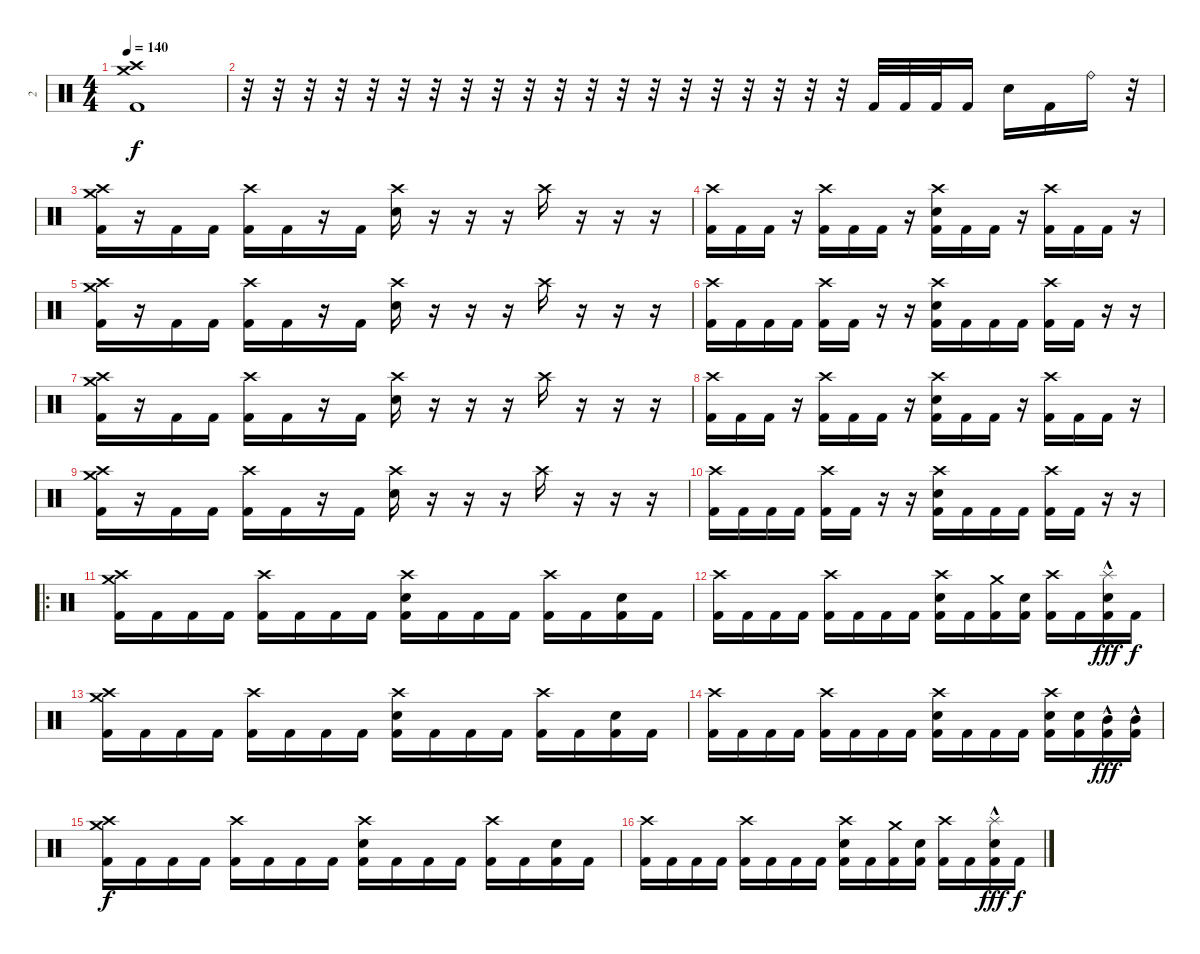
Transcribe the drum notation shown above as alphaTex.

\track ("2" "2") {instrument percussion}
\staff {score}
\articulation defaults
\ts (4 4)
\tempo 140
\clef neutral
\ks c
("Crash high (hit)" "Kick (hit) 2" "Crash medium (hit)").1{dy f} |
r.32 r.32 r.32 r.32 r.32 r.32 r.32 r.32 r.32 r.32 r.32 r.32 r.32 r.32 r.32 r.32 r.32 r.32 r.32 r.32 "Kick (hit) 2".32 "Kick (hit) 2".32 "Kick (hit) 2".32 "Kick (hit) 2".16 "Snare (hit) 2".16 "Kick (hit) 2".16 "Ride (bell)".16 r.32 |
("Crash medium (hit)" "Crash high (hit)" "Kick (hit) 2").16 r.16 "Kick (hit) 2".16 "Kick (hit) 2".16 ("Crash high (hit)" "Kick (hit) 2").16 "Kick (hit) 2".16 r.16 "Kick (hit) 2".16 ("Crash high (hit)" "Snare (hit) 2").16 r.16 r.16 r.16 "Crash high (hit)".16 r.16 r.16 r.16 |
("Crash high (hit)" "Kick (hit) 2").16 "Kick (hit) 2".16 "Kick (hit) 2".16 r.16 ("Crash high (hit)" "Kick (hit) 2").16 "Kick (hit) 2".16 "Kick (hit) 2".16 r.16 ("Crash high (hit)" "Snare (hit) 2" "Kick (hit) 2").16 "Kick (hit) 2".16 "Kick (hit) 2".16 r.16 ("Crash high (hit)" "Kick (hit) 2").16 "Kick (hit) 2".16 "Kick (hit) 2".16 r.16 |
("Crash medium (hit)" "Crash high (hit)" "Kick (hit) 2").16 r.16 "Kick (hit) 2".16 "Kick (hit) 2".16 ("Crash high (hit)" "Kick (hit) 2").16 "Kick (hit) 2".16 r.16 "Kick (hit) 2".16 ("Crash high (hit)" "Snare (hit) 2").16 r.16 r.16 r.16 "Crash high (hit)".16 r.16 r.16 r.16 |
("Crash high (hit)" "Kick (hit) 2").16 "Kick (hit) 2".16 "Kick (hit) 2".16 "Kick (hit) 2".16 ("Crash high (hit)" "Kick (hit) 2").16 "Kick (hit) 2".16 r.16 r.16 ("Crash high (hit)" "Snare (hit) 2" "Kick (hit) 2").16 "Kick (hit) 2".16 "Kick (hit) 2".16 "Kick (hit) 2".16 ("Crash high (hit)" "Kick (hit) 2").16 "Kick (hit) 2".16 r.16 r.16 |
("Crash medium (hit)" "Crash high (hit)" "Kick (hit) 2").16 r.16 "Kick (hit) 2".16 "Kick (hit) 2".16 ("Crash high (hit)" "Kick (hit) 2").16 "Kick (hit) 2".16 r.16 "Kick (hit) 2".16 ("Crash high (hit)" "Snare (hit) 2").16 r.16 r.16 r.16 "Crash high (hit)".16 r.16 r.16 r.16 |
("Crash high (hit)" "Kick (hit) 2").16 "Kick (hit) 2".16 "Kick (hit) 2".16 r.16 ("Crash high (hit)" "Kick (hit) 2").16 "Kick (hit) 2".16 "Kick (hit) 2".16 r.16 ("Crash high (hit)" "Snare (hit) 2" "Kick (hit) 2").16 "Kick (hit) 2".16 "Kick (hit) 2".16 r.16 ("Crash high (hit)" "Kick (hit) 2").16 "Kick (hit) 2".16 "Kick (hit) 2".16 r.16 |
("Crash medium (hit)" "Crash high (hit)" "Kick (hit) 2").16 r.16 "Kick (hit) 2".16 "Kick (hit) 2".16 ("Crash high (hit)" "Kick (hit) 2").16 "Kick (hit) 2".16 r.16 "Kick (hit) 2".16 ("Crash high (hit)" "Snare (hit) 2").16 r.16 r.16 r.16 "Crash high (hit)".16 r.16 r.16 r.16 |
("Crash high (hit)" "Kick (hit) 2").16 "Kick (hit) 2".16 "Kick (hit) 2".16 "Kick (hit) 2".16 ("Crash high (hit)" "Kick (hit) 2").16 "Kick (hit) 2".16 r.16 r.16 ("Crash high (hit)" "Snare (hit) 2" "Kick (hit) 2").16 "Kick (hit) 2".16 "Kick (hit) 2".16 "Kick (hit) 2".16 ("Crash high (hit)" "Kick (hit) 2").16 "Kick (hit) 2".16 r.16 r.16 |
\ro
("Crash medium (hit)" "Crash high (hit)" "Kick (hit) 2").16 "Kick (hit) 2".16 "Kick (hit) 2".16 "Kick (hit) 2".16 ("Crash high (hit)" "Kick (hit) 2").16 "Kick (hit) 2".16 "Kick (hit) 2".16 "Kick (hit) 2".16 ("Crash high (hit)" "Snare (hit) 2" "Kick (hit) 2").16 "Kick (hit) 2".16 "Kick (hit) 2".16 "Kick (hit) 2".16 ("Crash high (hit)" "Kick (hit) 2").16 "Kick (hit) 2".16 ("Snare (hit) 2" "Kick (hit) 2").16 "Kick (hit) 2".16 |
("Crash high (hit)" "Kick (hit) 2").16 "Kick (hit) 2".16 "Kick (hit) 2".16 "Kick (hit) 2".16 ("Crash high (hit)" "Kick (hit) 2").16 "Kick (hit) 2".16 "Kick (hit) 2".16 "Kick (hit) 2".16 ("Crash high (hit)" "Snare (hit) 2" "Kick (hit) 2").16 "Kick (hit) 2".16 ("Crash medium (hit)" "Kick (hit) 2").16 ("Snare (hit) 2" "Kick (hit) 2").16 ("Crash high (hit)" "Kick (hit) 2").16 "Kick (hit) 2".16 ("Splash (hit)" "Electric Snare (hit)"{hac} "Kick (hit) 2").16{dy fff} "Kick (hit) 2".16{dy f} |
("Crash medium (hit)" "Crash high (hit)" "Kick (hit) 2").16 "Kick (hit) 2".16 "Kick (hit) 2".16 "Kick (hit) 2".16 ("Crash high (hit)" "Kick (hit) 2").16 "Kick (hit) 2".16 "Kick (hit) 2".16 "Kick (hit) 2".16 ("Crash high (hit)" "Snare (hit) 2" "Kick (hit) 2").16 "Kick (hit) 2".16 "Kick (hit) 2".16 "Kick (hit) 2".16 ("Crash high (hit)" "Kick (hit) 2").16 "Kick (hit) 2".16 ("Snare (hit) 2" "Kick (hit) 2").16 "Kick (hit) 2".16 |
("Crash high (hit)" "Kick (hit) 2").16 "Kick (hit) 2".16 "Kick (hit) 2".16 "Kick (hit) 2".16 ("Crash high (hit)" "Kick (hit) 2").16 "Kick (hit) 2".16 "Kick (hit) 2".16 "Kick (hit) 2".16 ("Crash high (hit)" "Snare (hit) 2" "Kick (hit) 2").16 "Kick (hit) 2".16 "Kick (hit) 2".16 "Kick (hit) 2".16 ("Crash high (hit)" "Snare (hit) 2" "Kick (hit) 2").16 ("Snare (hit) 2" "Kick (hit) 2").16 ("Mid Tom (hit)"{hac} "Kick (hit) 2").16{dy fff} ("Mid Tom (hit)"{hac} "Kick (hit) 2").16 |
("Crash medium (hit)" "Crash high (hit)" "Kick (hit) 2").16{dy f} "Kick (hit) 2".16 "Kick (hit) 2".16 "Kick (hit) 2".16 ("Crash high (hit)" "Kick (hit) 2").16 "Kick (hit) 2".16 "Kick (hit) 2".16 "Kick (hit) 2".16 ("Crash high (hit)" "Snare (hit) 2" "Kick (hit) 2").16 "Kick (hit) 2".16 "Kick (hit) 2".16 "Kick (hit) 2".16 ("Crash high (hit)" "Kick (hit) 2").16 "Kick (hit) 2".16 ("Snare (hit) 2" "Kick (hit) 2").16 "Kick (hit) 2".16 |
("Crash high (hit)" "Kick (hit) 2").16 "Kick (hit) 2".16 "Kick (hit) 2".16 "Kick (hit) 2".16 ("Crash high (hit)" "Kick (hit) 2").16 "Kick (hit) 2".16 "Kick (hit) 2".16 "Kick (hit) 2".16 ("Crash high (hit)" "Snare (hit) 2" "Kick (hit) 2").16 "Kick (hit) 2".16 ("Crash medium (hit)" "Kick (hit) 2").16 ("Snare (hit) 2" "Kick (hit) 2").16 ("Crash high (hit)" "Kick (hit) 2").16 "Kick (hit) 2".16 ("Splash (hit)" "Electric Snare (hit)"{hac} "Kick (hit) 2").16{dy fff} "Kick (hit) 2".16{dy f}
